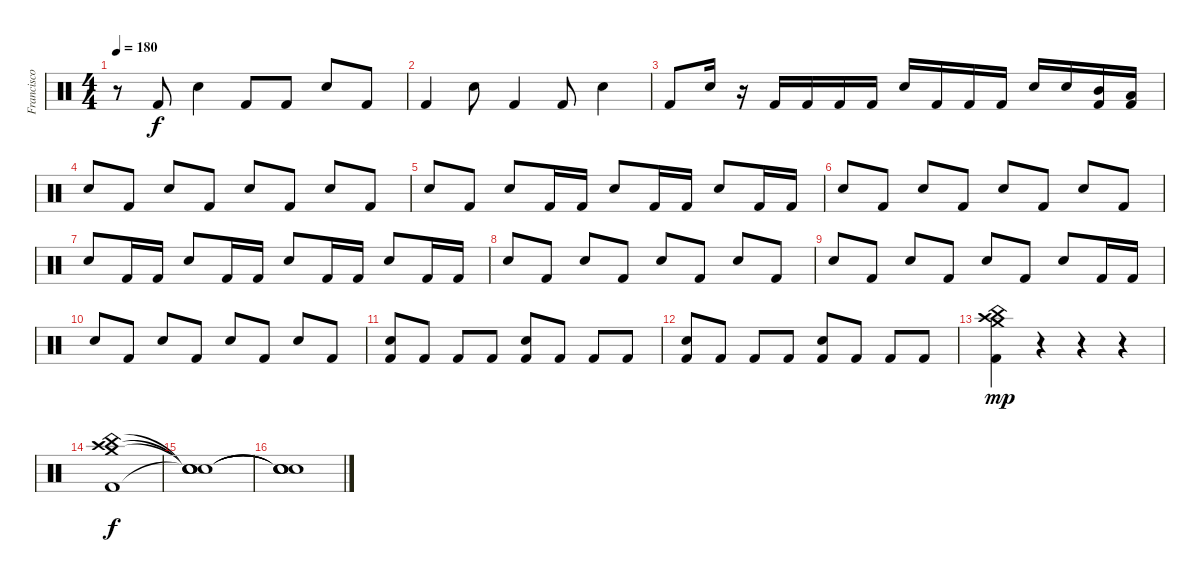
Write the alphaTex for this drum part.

\track ("Francisco Izquierdo (Percusión)" "Francisco ") {instrument percussion}
\staff {score}
\articulation defaults
\ts (4 4)
\tempo 180
\clef neutral
\ks c
r.8{dy f} "Kick (hit) 2".8 "Electric Snare (hit)".4 "Kick (hit) 2".8 "Kick (hit) 2".8 "Electric Snare (hit)".8 "Kick (hit) 2".8 |
"Kick (hit) 2".4 "Electric Snare (hit)".8 "Kick (hit) 2".4 "Kick (hit) 2".8 "Electric Snare (hit)".4 |
"Kick (hit) 2".8 "Electric Snare (hit)".16 r.16 "Kick (hit) 2".16 "Kick (hit) 2".16 "Kick (hit) 2".16 "Kick (hit) 2".16 "Electric Snare (hit)".16 "Kick (hit) 2".16 "Kick (hit) 2".16 "Kick (hit) 2".16 "Electric Snare (hit)".16 "Electric Snare (hit)".16 ("Mid Tom (hit)" "Kick (hit) 2").16 ("Low Tom (hit)" "Kick (hit) 2").16 |
"Electric Snare (hit)".8 "Kick (hit) 2".8 "Electric Snare (hit)".8 "Kick (hit) 2".8 "Electric Snare (hit)".8 "Kick (hit) 2".8 "Electric Snare (hit)".8 "Kick (hit) 2".8 |
"Electric Snare (hit)".8 "Kick (hit) 2".8 "Electric Snare (hit)".8 "Kick (hit) 2".16 "Kick (hit) 2".16 "Electric Snare (hit)".8 "Kick (hit) 2".16 "Kick (hit) 2".16 "Electric Snare (hit)".8 "Kick (hit) 2".16 "Kick (hit) 2".16 |
"Electric Snare (hit)".8 "Kick (hit) 2".8 "Electric Snare (hit)".8 "Kick (hit) 2".8 "Electric Snare (hit)".8 "Kick (hit) 2".8 "Electric Snare (hit)".8 "Kick (hit) 2".8 |
"Electric Snare (hit)".8 "Kick (hit) 2".16 "Kick (hit) 2".16 "Electric Snare (hit)".8 "Kick (hit) 2".16 "Kick (hit) 2".16 "Electric Snare (hit)".8 "Kick (hit) 2".16 "Kick (hit) 2".16 "Electric Snare (hit)".8 "Kick (hit) 2".16 "Kick (hit) 2".16 |
"Electric Snare (hit)".8 "Kick (hit) 2".8 "Electric Snare (hit)".8 "Kick (hit) 2".8 "Electric Snare (hit)".8 "Kick (hit) 2".8 "Electric Snare (hit)".8 "Kick (hit) 2".8 |
"Electric Snare (hit)".8 "Kick (hit) 2".8 "Electric Snare (hit)".8 "Kick (hit) 2".8 "Electric Snare (hit)".8 "Kick (hit) 2".8 "Electric Snare (hit)".8 "Kick (hit) 2".16 "Kick (hit) 2".16 |
"Electric Snare (hit)".8 "Kick (hit) 2".8 "Electric Snare (hit)".8 "Kick (hit) 2".8 "Electric Snare (hit)".8 "Kick (hit) 2".8 "Electric Snare (hit)".8 "Kick (hit) 2".8 |
("Electric Snare (hit)" "Kick (hit) 2").8 "Kick (hit) 2".8 "Kick (hit) 2".8 "Kick (hit) 2".8 ("Electric Snare (hit)" "Kick (hit) 2").8 "Kick (hit) 2".8 "Kick (hit) 2".8 "Kick (hit) 2".8 |
("Electric Snare (hit)" "Kick (hit) 2").8 "Kick (hit) 2".8 "Kick (hit) 2".8 "Kick (hit) 2".8 ("Electric Snare (hit)" "Kick (hit) 2").8 "Kick (hit) 2".8 "Kick (hit) 2".8 "Kick (hit) 2".8 |
("Crash high (hit)" "Crash medium (hit)" "China (hit)" "Kick (hit) 2").4{dy mp} r.4 r.4 r.4 |
("Crash high (hit)" "Crash medium (hit)" "China (hit)" "Kick (hit) 2").1{dy f} |
("Snare (hit)"{t} "Snare (hit)"{t} "Snare (hit)"{t} "Snare (hit)"{t}).1 |
("Snare (hit)"{t} "Snare (hit)"{t} "Snare (hit)"{t} "Snare (hit)"{t}).1
